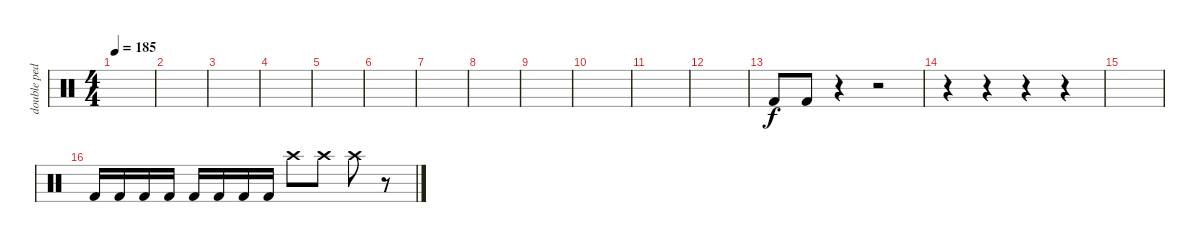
\track ("double pedale" "double ped") {instrument percussion}
\staff {score}
\articulation defaults
\ts (4 4)
\tempo 185
\clef neutral
\ks c
|
|
|
|
|
|
|
|
|
|
|
|
"Kick (hit) 2".8 "Kick (hit) 2".8 r.4 r.2 |
r.4 r.4 r.4 r.4 |
|
"Kick (hit) 2".16 "Kick (hit) 2".16 "Kick (hit) 2".16 "Kick (hit) 2".16 "Kick (hit) 2".16 "Kick (hit) 2".16 "Kick (hit) 2".16 "Kick (hit) 2".16 "Crash high (hit)".8 "Crash high (hit)".8 "Crash high (hit)".8 r.8
